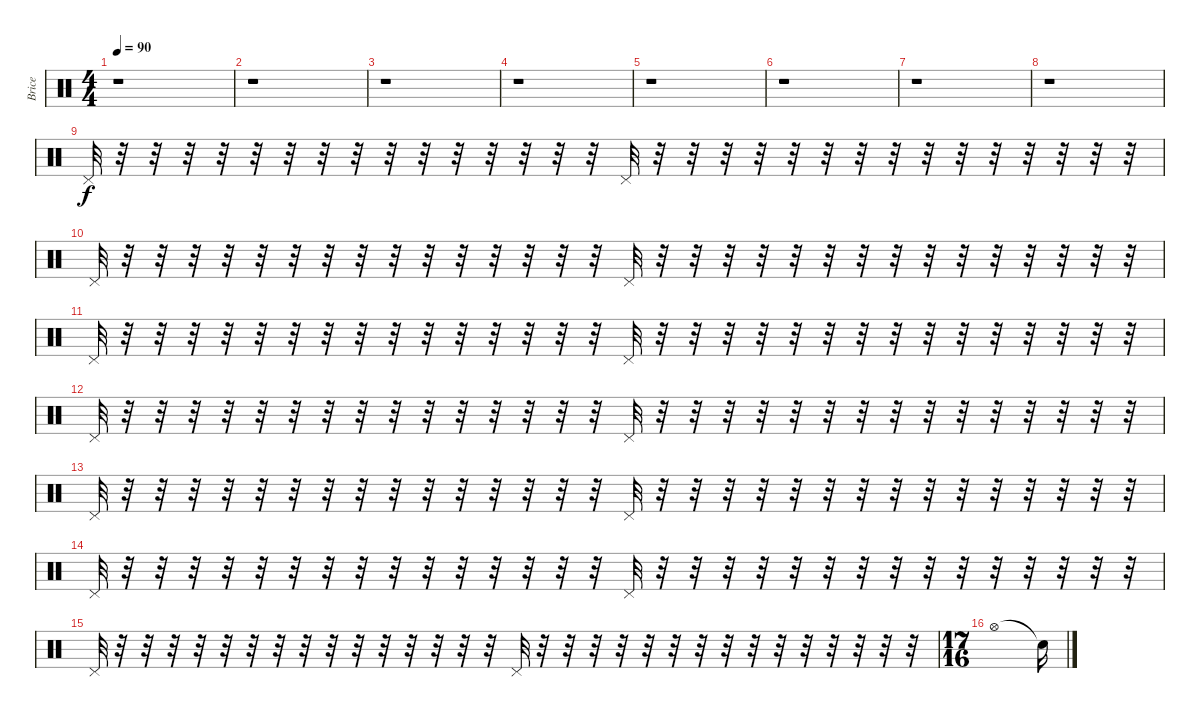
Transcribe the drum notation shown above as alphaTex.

\track ("Brice" "Brice") {instrument percussion}
\staff {score}
\articulation defaults
\ts (4 4)
\tempo 90
\clef neutral
\ks c
r.1{dy f} |
r.1 |
r.1 |
r.1 |
r.1 |
r.1 |
r.1 |
r.1 |
"Pedal Hi-Hat (hit)".32 r.32 r.32 r.32 r.32 r.32 r.32 r.32 r.32 r.32 r.32 r.32 r.32 r.32 r.32 r.32 "Pedal Hi-Hat (hit)".32 r.32 r.32 r.32 r.32 r.32 r.32 r.32 r.32 r.32 r.32 r.32 r.32 r.32 r.32 r.32 |
"Pedal Hi-Hat (hit)".32 r.32 r.32 r.32 r.32 r.32 r.32 r.32 r.32 r.32 r.32 r.32 r.32 r.32 r.32 r.32 "Pedal Hi-Hat (hit)".32 r.32 r.32 r.32 r.32 r.32 r.32 r.32 r.32 r.32 r.32 r.32 r.32 r.32 r.32 r.32 |
"Pedal Hi-Hat (hit)".32 r.32 r.32 r.32 r.32 r.32 r.32 r.32 r.32 r.32 r.32 r.32 r.32 r.32 r.32 r.32 "Pedal Hi-Hat (hit)".32 r.32 r.32 r.32 r.32 r.32 r.32 r.32 r.32 r.32 r.32 r.32 r.32 r.32 r.32 r.32 |
"Pedal Hi-Hat (hit)".32 r.32 r.32 r.32 r.32 r.32 r.32 r.32 r.32 r.32 r.32 r.32 r.32 r.32 r.32 r.32 "Pedal Hi-Hat (hit)".32 r.32 r.32 r.32 r.32 r.32 r.32 r.32 r.32 r.32 r.32 r.32 r.32 r.32 r.32 r.32 |
"Pedal Hi-Hat (hit)".32 r.32 r.32 r.32 r.32 r.32 r.32 r.32 r.32 r.32 r.32 r.32 r.32 r.32 r.32 r.32 "Pedal Hi-Hat (hit)".32 r.32 r.32 r.32 r.32 r.32 r.32 r.32 r.32 r.32 r.32 r.32 r.32 r.32 r.32 r.32 |
"Pedal Hi-Hat (hit)".32 r.32 r.32 r.32 r.32 r.32 r.32 r.32 r.32 r.32 r.32 r.32 r.32 r.32 r.32 r.32 "Pedal Hi-Hat (hit)".32 r.32 r.32 r.32 r.32 r.32 r.32 r.32 r.32 r.32 r.32 r.32 r.32 r.32 r.32 r.32 |
"Pedal Hi-Hat (hit)".32 r.32 r.32 r.32 r.32 r.32 r.32 r.32 r.32 r.32 r.32 r.32 r.32 r.32 r.32 r.32 "Pedal Hi-Hat (hit)".32 r.32 r.32 r.32 r.32 r.32 r.32 r.32 r.32 r.32 r.32 r.32 r.32 r.32 r.32 r.32 |
\ts (17 16)
"Hi-Hat (open)".1 "Snare (hit)"{t}.16
